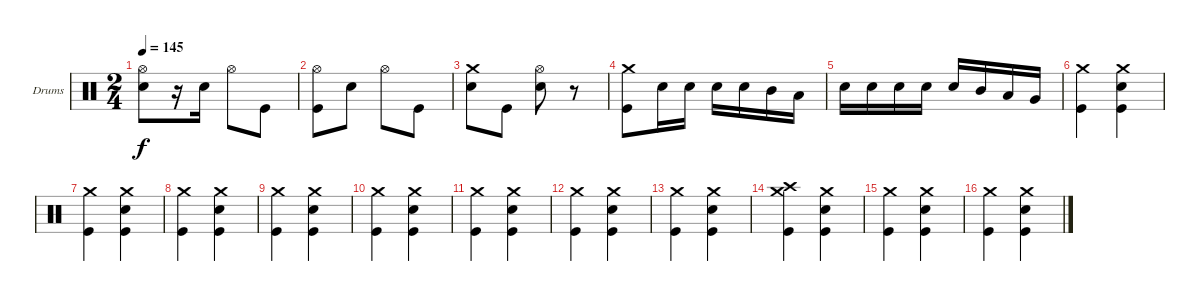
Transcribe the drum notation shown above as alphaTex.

\bracketExtendMode groupsimilarinstruments
\firstSystemTrackNameOrientation horizontal
\otherSystemsTrackNameOrientation horizontal
\track ("Drumkit" "Drums") {instrument percussion}
\staff {score}
\articulation defaults
\ts (2 4)
\tempo 145
\clef neutral
\ks c
("Snare (hit) 2" "Hi-Hat (open)").8{dy f} r.16 "Snare (hit) 2".16 "Hi-Hat (open)".8 "Kick (hit)".8 |
("Kick (hit)" "Hi-Hat (open)").8 "Snare (hit) 2".8 "Hi-Hat (open)".8 "Kick (hit)".8 |
("Snare (hit) 2" "Crash medium (hit)").8 "Kick (hit)".8 ("Snare (hit) 2" "Hi-Hat (open)").8 r.8 |
("Kick (hit)" "Crash medium (hit)").8 "Snare (hit) 2".16 "Snare (hit) 2".16 "Snare (hit) 2".16 "Snare (hit) 2".16 "Mid Tom (hit)".16 "Low Tom (hit)".16 |
"Snare (hit) 2".16 "Snare (hit) 2".16 "Snare (hit) 2".16 "Snare (hit) 2".16 "Snare (hit) 2".16 "Mid Tom (hit)".16 "Low Tom (hit)".16 "Very Low Tom (hit)".16 |
("Crash medium (hit)" "Kick (hit)").4 ("Crash medium (hit)" "Snare (hit) 2" "Kick (hit)").4 |
("Crash medium (hit)" "Kick (hit)").4 ("Crash medium (hit)" "Snare (hit) 2" "Kick (hit)").4 |
("Crash medium (hit)" "Kick (hit)").4 ("Crash medium (hit)" "Snare (hit) 2" "Kick (hit)").4 |
("Crash medium (hit)" "Kick (hit)").4 ("Crash medium (hit)" "Snare (hit) 2" "Kick (hit)").4 |
("Crash medium (hit)" "Kick (hit)").4 ("Crash medium (hit)" "Snare (hit) 2" "Kick (hit)").4 |
("Crash medium (hit)" "Kick (hit)").4 ("Crash medium (hit)" "Snare (hit) 2" "Kick (hit)").4 |
("Crash medium (hit)" "Kick (hit)").4 ("Crash medium (hit)" "Snare (hit) 2" "Kick (hit)").4 |
("Crash medium (hit)" "Kick (hit)").4 ("Crash medium (hit)" "Snare (hit) 2" "Kick (hit)").4 |
("Crash medium (hit)" "Crash high (hit)" "Kick (hit)").4 ("Crash medium (hit)" "Snare (hit) 2" "Kick (hit)").4 |
("Crash medium (hit)" "Kick (hit)").4 ("Crash medium (hit)" "Snare (hit) 2" "Kick (hit)").4 |
("Crash medium (hit)" "Kick (hit)").4 ("Crash medium (hit)" "Snare (hit) 2" "Kick (hit)").4
